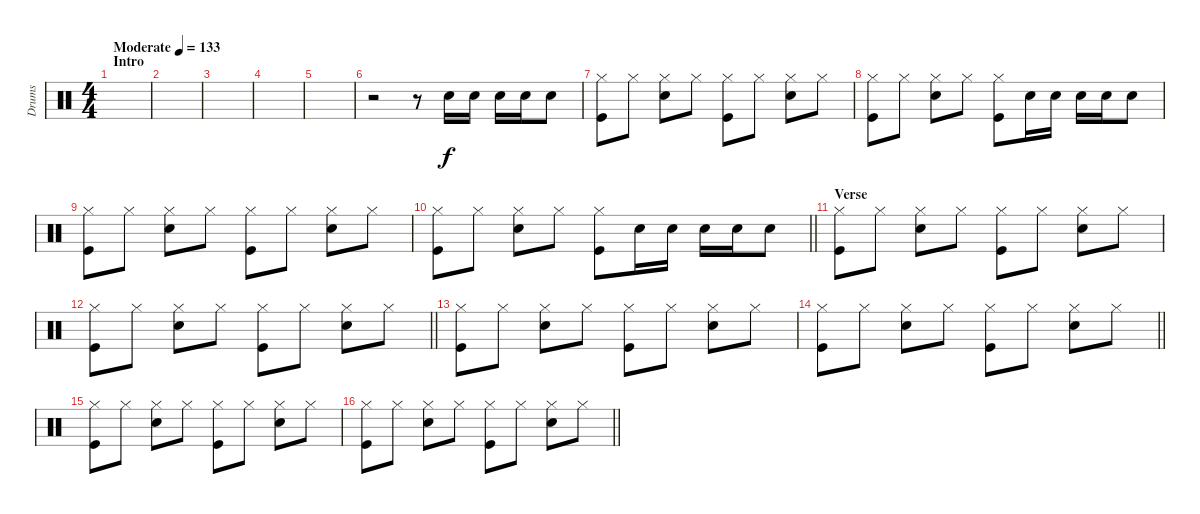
\track ("Drums" "Drums") {instrument percussion}
\staff {score}
\articulation defaults
\ts (4 4)
\section ("" "Intro")
\tempo (133 "Moderate")
\clef neutral
\ks c
|
|
|
|
|
r.2 r.8 "Snare (hit) 2".16 "Snare (hit) 2".16 "Snare (hit) 2".16 "Snare (hit) 2".16 "Snare (hit) 2".8 |
("Hi-Hat (closed)" "Kick (hit)").8 "Hi-Hat (closed)".8 ("Hi-Hat (closed)" "Snare (hit) 2").8 "Hi-Hat (closed)".8 ("Hi-Hat (closed)" "Kick (hit)").8 "Hi-Hat (closed)".8 ("Hi-Hat (closed)" "Snare (hit) 2").8 "Hi-Hat (closed)".8 |
("Hi-Hat (closed)" "Kick (hit)").8 "Hi-Hat (closed)".8 ("Hi-Hat (closed)" "Snare (hit) 2").8 "Hi-Hat (closed)".8 ("Hi-Hat (closed)" "Kick (hit)").8 "Snare (hit) 2".16 "Snare (hit) 2".16 "Snare (hit) 2".16 "Snare (hit) 2".16 "Snare (hit) 2".8 |
("Hi-Hat (closed)" "Kick (hit)").8 "Hi-Hat (closed)".8 ("Hi-Hat (closed)" "Snare (hit) 2").8 "Hi-Hat (closed)".8 ("Hi-Hat (closed)" "Kick (hit)").8 "Hi-Hat (closed)".8 ("Hi-Hat (closed)" "Snare (hit) 2").8 "Hi-Hat (closed)".8 |
\barLineRight lightlight
("Hi-Hat (closed)" "Kick (hit)").8 "Hi-Hat (closed)".8 ("Hi-Hat (closed)" "Snare (hit) 2").8 "Hi-Hat (closed)".8 ("Hi-Hat (closed)" "Kick (hit)").8 "Snare (hit) 2".16 "Snare (hit) 2".16 "Snare (hit) 2".16 "Snare (hit) 2".16 "Snare (hit) 2".8 |
\section ("" "Verse")
("Hi-Hat (closed)" "Kick (hit)").8 "Hi-Hat (closed)".8 ("Hi-Hat (closed)" "Snare (hit) 2").8 "Hi-Hat (closed)".8 ("Hi-Hat (closed)" "Kick (hit)").8 "Hi-Hat (closed)".8 ("Hi-Hat (closed)" "Snare (hit) 2").8 "Hi-Hat (closed)".8 |
\barLineRight lightlight
("Hi-Hat (closed)" "Kick (hit)").8 "Hi-Hat (closed)".8 ("Hi-Hat (closed)" "Snare (hit) 2").8 "Hi-Hat (closed)".8 ("Hi-Hat (closed)" "Kick (hit)").8 "Hi-Hat (closed)".8 ("Hi-Hat (closed)" "Snare (hit) 2").8 "Hi-Hat (closed)".8 |
("Hi-Hat (closed)" "Kick (hit)").8 "Hi-Hat (closed)".8 ("Hi-Hat (closed)" "Snare (hit) 2").8 "Hi-Hat (closed)".8 ("Hi-Hat (closed)" "Kick (hit)").8 "Hi-Hat (closed)".8 ("Hi-Hat (closed)" "Snare (hit) 2").8 "Hi-Hat (closed)".8 |
\barLineRight lightlight
("Hi-Hat (closed)" "Kick (hit)").8 "Hi-Hat (closed)".8 ("Hi-Hat (closed)" "Snare (hit) 2").8 "Hi-Hat (closed)".8 ("Hi-Hat (closed)" "Kick (hit)").8 "Hi-Hat (closed)".8 ("Hi-Hat (closed)" "Snare (hit) 2").8 "Hi-Hat (closed)".8 |
("Hi-Hat (closed)" "Kick (hit)").8 "Hi-Hat (closed)".8 ("Hi-Hat (closed)" "Snare (hit) 2").8 "Hi-Hat (closed)".8 ("Hi-Hat (closed)" "Kick (hit)").8 "Hi-Hat (closed)".8 ("Hi-Hat (closed)" "Snare (hit) 2").8 "Hi-Hat (closed)".8 |
\barLineRight lightlight
("Hi-Hat (closed)" "Kick (hit)").8 "Hi-Hat (closed)".8 ("Hi-Hat (closed)" "Snare (hit) 2").8 "Hi-Hat (closed)".8 ("Hi-Hat (closed)" "Kick (hit)").8 "Hi-Hat (closed)".8 ("Hi-Hat (closed)" "Snare (hit) 2").8 "Hi-Hat (closed)".8
